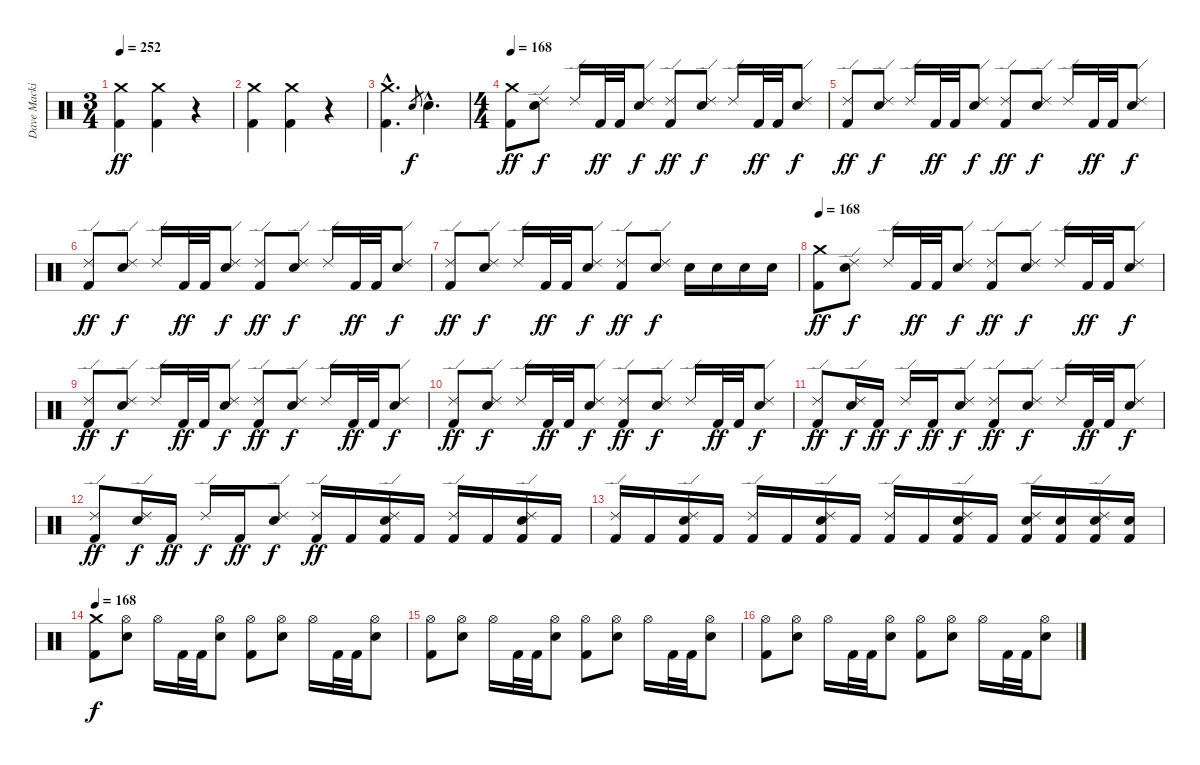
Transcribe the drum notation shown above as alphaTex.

\track ("Dave Mackintosh" "Dave Macki") {instrument percussion}
\staff {score}
\articulation defaults
\ts (3 4)
\tempo 252
\clef neutral
\ks c
("Crash medium (hit)" "Kick (hit) 2").4{dy ff} ("Crash medium (hit)" "Kick (hit) 2").4 r.4 |
("Crash medium (hit)" "Kick (hit) 2").4 ("Crash medium (hit)" "Kick (hit) 2").4 r.4 |
("Crash medium (hit)"{hac} "Kick (hit) 2"{hac}).4{d} "Electric Snare (hit)".8{gr dy f} "Electric Snare (hit)"{hac}.4{d} |
\ts (4 4)
\tempo 168
("Crash medium (hit)" "Kick (hit) 2").8{dy ff} ("Ride (edge) 2" "Electric Snare (hit)").8{dy f} "Ride (edge) 2".16 "Kick (hit) 2".32{dy ff} "Kick (hit) 2".32 ("Ride (edge) 2" "Electric Snare (hit)").8{dy f} ("Ride (edge) 2" "Kick (hit) 2").8{dy ff} ("Ride (edge) 2" "Electric Snare (hit)").8{dy f} "Ride (edge) 2".16 "Kick (hit) 2".32{dy ff} "Kick (hit) 2".32 ("Ride (edge) 2" "Electric Snare (hit)").8{dy f} |
("Ride (edge) 2" "Kick (hit) 2").8{dy ff} ("Ride (edge) 2" "Electric Snare (hit)").8{dy f} "Ride (edge) 2".16 "Kick (hit) 2".32{dy ff} "Kick (hit) 2".32 ("Ride (edge) 2" "Electric Snare (hit)").8{dy f} ("Ride (edge) 2" "Kick (hit) 2").8{dy ff} ("Ride (edge) 2" "Electric Snare (hit)").8{dy f} "Ride (edge) 2".16 "Kick (hit) 2".32{dy ff} "Kick (hit) 2".32 ("Ride (edge) 2" "Electric Snare (hit)").8{dy f} |
("Ride (edge) 2" "Kick (hit) 2").8{dy ff} ("Ride (edge) 2" "Electric Snare (hit)").8{dy f} "Ride (edge) 2".16 "Kick (hit) 2".32{dy ff} "Kick (hit) 2".32 ("Ride (edge) 2" "Electric Snare (hit)").8{dy f} ("Ride (edge) 2" "Kick (hit) 2").8{dy ff} ("Ride (edge) 2" "Electric Snare (hit)").8{dy f} "Ride (edge) 2".16 "Kick (hit) 2".32{dy ff} "Kick (hit) 2".32 ("Ride (edge) 2" "Electric Snare (hit)").8{dy f} |
("Ride (edge) 2" "Kick (hit) 2").8{dy ff} ("Ride (edge) 2" "Electric Snare (hit)").8{dy f} "Ride (edge) 2".16 "Kick (hit) 2".32{dy ff} "Kick (hit) 2".32 ("Ride (edge) 2" "Electric Snare (hit)").8{dy f} ("Ride (edge) 2" "Kick (hit) 2").8{dy ff} ("Ride (edge) 2" "Electric Snare (hit)").8{dy f} "Electric Snare (hit)".16 "Electric Snare (hit)".16 "Electric Snare (hit)".16 "Electric Snare (hit)".16 |
\tempo 168
("Crash medium (hit)" "Kick (hit) 2").8{dy ff} ("Ride (edge) 2" "Electric Snare (hit)").8{dy f} "Ride (edge) 2".16 "Kick (hit) 2".32{dy ff} "Kick (hit) 2".32 ("Ride (edge) 2" "Electric Snare (hit)").8{dy f} ("Ride (edge) 2" "Kick (hit) 2").8{dy ff} ("Ride (edge) 2" "Electric Snare (hit)").8{dy f} "Ride (edge) 2".16 "Kick (hit) 2".32{dy ff} "Kick (hit) 2".32 ("Ride (edge) 2" "Electric Snare (hit)").8{dy f} |
("Ride (edge) 2" "Kick (hit) 2").8{dy ff} ("Ride (edge) 2" "Electric Snare (hit)").8{dy f} "Ride (edge) 2".16 "Kick (hit) 2".32{dy ff} "Kick (hit) 2".32 ("Ride (edge) 2" "Electric Snare (hit)").8{dy f} ("Ride (edge) 2" "Kick (hit) 2").8{dy ff} ("Ride (edge) 2" "Electric Snare (hit)").8{dy f} "Ride (edge) 2".16 "Kick (hit) 2".32{dy ff} "Kick (hit) 2".32 ("Ride (edge) 2" "Electric Snare (hit)").8{dy f} |
("Ride (edge) 2" "Kick (hit) 2").8{dy ff} ("Ride (edge) 2" "Electric Snare (hit)").8{dy f} "Ride (edge) 2".16 "Kick (hit) 2".32{dy ff} "Kick (hit) 2".32 ("Ride (edge) 2" "Electric Snare (hit)").8{dy f} ("Ride (edge) 2" "Kick (hit) 2").8{dy ff} ("Ride (edge) 2" "Electric Snare (hit)").8{dy f} "Ride (edge) 2".16 "Kick (hit) 2".32{dy ff} "Kick (hit) 2".32 ("Ride (edge) 2" "Electric Snare (hit)").8{dy f} |
("Ride (edge) 2" "Kick (hit) 2").8{dy ff} ("Ride (edge) 2" "Electric Snare (hit)").16{dy f} "Kick (hit) 2".16{dy ff} "Ride (edge) 2".16{dy f} "Kick (hit) 2".16{dy ff} ("Ride (edge) 2" "Electric Snare (hit)").8{dy f} ("Ride (edge) 2" "Kick (hit) 2").8{dy ff} ("Ride (edge) 2" "Electric Snare (hit)").8{dy f} "Ride (edge) 2".16 "Kick (hit) 2".32{dy ff} "Kick (hit) 2".32 ("Ride (edge) 2" "Electric Snare (hit)").8{dy f} |
("Ride (edge) 2" "Kick (hit) 2").8{dy ff} ("Ride (edge) 2" "Electric Snare (hit)").16{dy f} "Kick (hit) 2".16{dy ff} "Ride (edge) 2".16{dy f} "Kick (hit) 2".16{dy ff} ("Ride (edge) 2" "Electric Snare (hit)").8{dy f} ("Ride (edge) 2" "Kick (hit) 2").16{dy ff} "Kick (hit) 2".16 ("Ride (edge) 2" "Electric Snare (hit)" "Kick (hit) 2").16 "Kick (hit) 2".16 ("Ride (edge) 2" "Kick (hit) 2").16 "Kick (hit) 2".16 ("Ride (edge) 2" "Electric Snare (hit)" "Kick (hit) 2").16 "Kick (hit) 2".16 |
("Ride (edge) 2" "Kick (hit) 2").16 "Kick (hit) 2".16 ("Ride (edge) 2" "Electric Snare (hit)" "Kick (hit) 2").16 "Kick (hit) 2".16 ("Ride (edge) 2" "Kick (hit) 2").16 "Kick (hit) 2".16 ("Ride (edge) 2" "Electric Snare (hit)" "Kick (hit) 2").16 "Kick (hit) 2".16 ("Ride (edge) 2" "Kick (hit) 2").16 "Kick (hit) 2".16 ("Ride (edge) 2" "Electric Snare (hit)" "Kick (hit) 2").16 "Kick (hit) 2".16 ("Ride (edge) 2" "Electric Snare (hit)" "Kick (hit) 2").16 ("Electric Snare (hit)" "Kick (hit) 2").16 ("Ride (edge) 2" "Electric Snare (hit)" "Kick (hit) 2").16 ("Electric Snare (hit)" "Kick (hit) 2").16 |
\tempo 168
("Crash medium (hit)" "Kick (hit) 2").8{dy f} ("Hi-Hat (open)" "Electric Snare (hit)").8 "Hi-Hat (open)".16 "Kick (hit) 2".32 "Kick (hit) 2".32 ("Hi-Hat (open)" "Electric Snare (hit)").8 ("Hi-Hat (open)" "Kick (hit) 2").8 ("Hi-Hat (open)" "Electric Snare (hit)").8 "Hi-Hat (open)".16 "Kick (hit) 2".32 "Kick (hit) 2".32 ("Hi-Hat (open)" "Electric Snare (hit)").8 |
("Hi-Hat (open)" "Kick (hit) 2").8 ("Hi-Hat (open)" "Electric Snare (hit)").8 "Hi-Hat (open)".16 "Kick (hit) 2".32 "Kick (hit) 2".32 ("Hi-Hat (open)" "Electric Snare (hit)").8 ("Hi-Hat (open)" "Kick (hit) 2").8 ("Hi-Hat (open)" "Electric Snare (hit)").8 "Hi-Hat (open)".16 "Kick (hit) 2".32 "Kick (hit) 2".32 ("Hi-Hat (open)" "Electric Snare (hit)").8 |
("Hi-Hat (open)" "Kick (hit) 2").8 ("Hi-Hat (open)" "Electric Snare (hit)").8 "Hi-Hat (open)".16 "Kick (hit) 2".32 "Kick (hit) 2".32 ("Hi-Hat (open)" "Electric Snare (hit)").8 ("Hi-Hat (open)" "Kick (hit) 2").8 ("Hi-Hat (open)" "Electric Snare (hit)").8 "Hi-Hat (open)".16 "Kick (hit) 2".32 "Kick (hit) 2".32 ("Hi-Hat (open)" "Electric Snare (hit)").8
